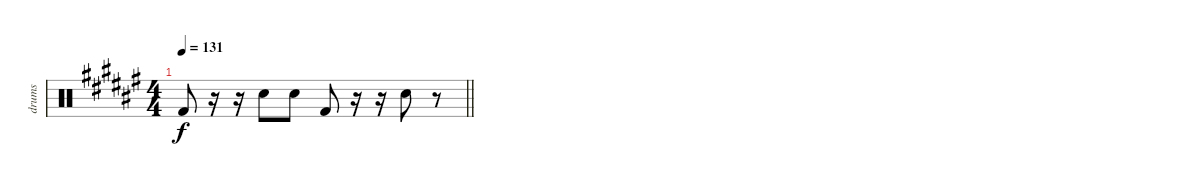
\track ("drums" "drums") {instrument percussion}
\staff {score}
\articulation defaults
\ts (4 4)
\tempo 131
\clef neutral
\barLineRight lightlight
\ks f# "Kick (hit) 2".8{dy f}
r.16 r.16 "Snare (hit) 2".8 "Snare (hit) 2".8 "Kick (hit) 2".8 r.16 r.16 "Snare (hit) 2".8 r.8
